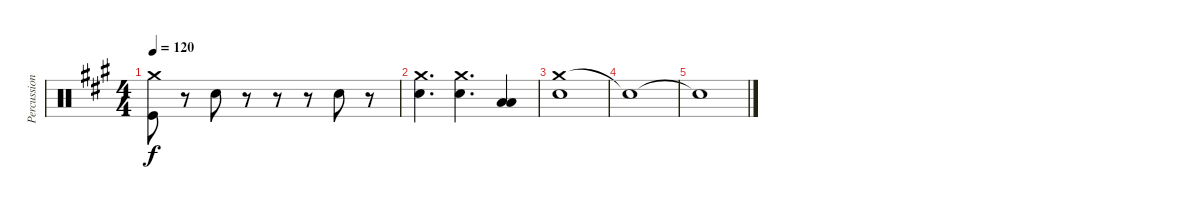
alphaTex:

\track ("Percussion" "Percussion") {instrument percussion}
\staff {score}
\articulation defaults
\ts (4 4)
\tempo 120
\clef neutral
\ks a
("Crash medium (hit)" "Kick (hit)").8{dy f} r.8 "Snare (hit) 2".8 r.8 r.8 r.8 "Snare (hit) 2".8 r.8 |
("Crash medium (hit)" "Snare (hit) 2").4{d} ("Crash medium (hit)" "Snare (hit) 2").4{d} ("Low Tom (hit)" "Low Floor Tom (hit)").4 |
("Crash medium (hit)" "Snare (hit) 2").1 |
"Snare (hit)"{t}.1 |
"Snare (hit)"{t}.1
